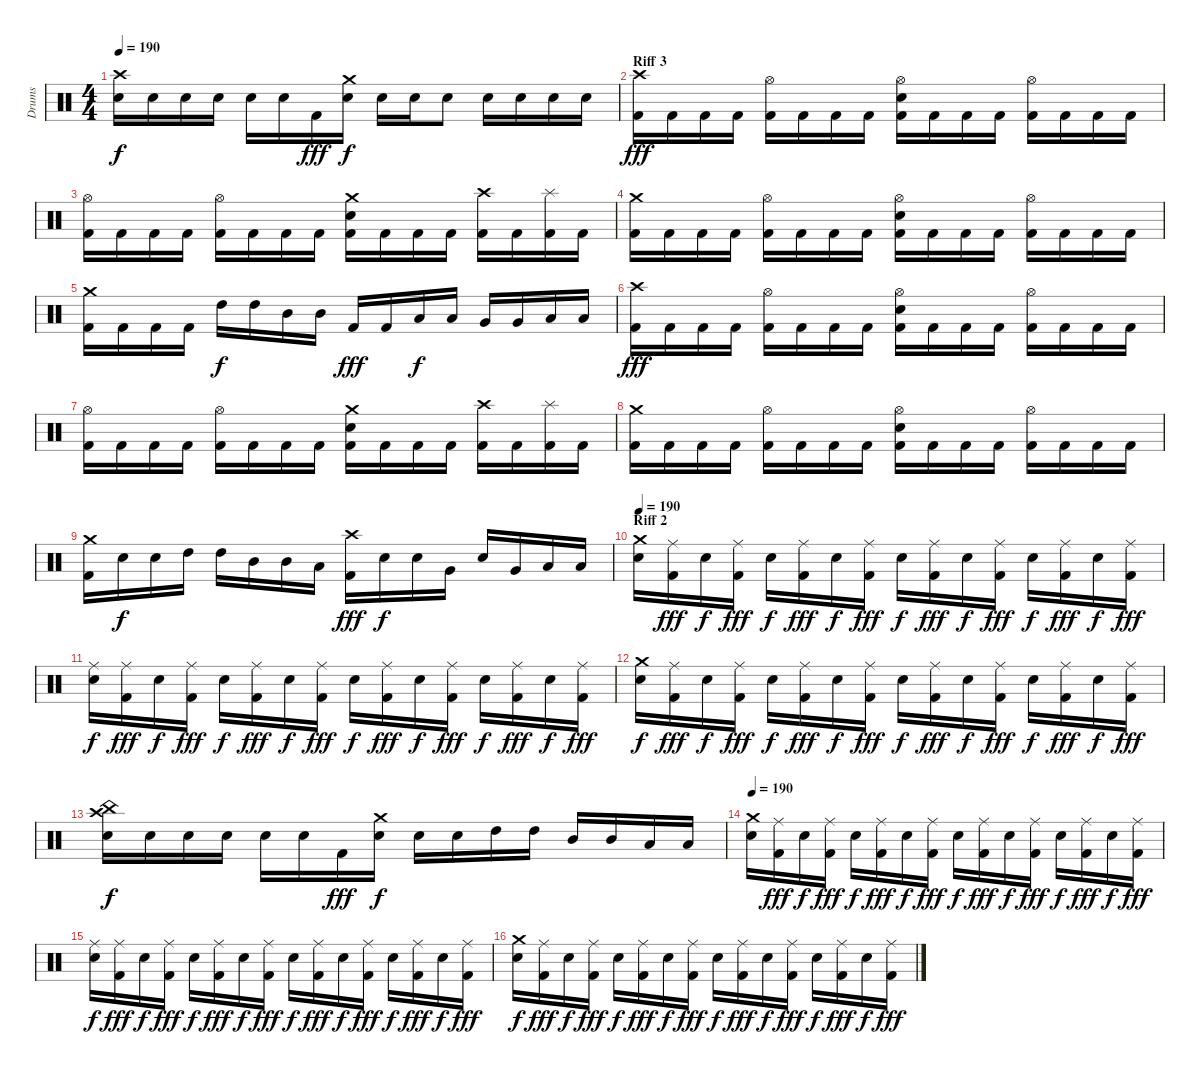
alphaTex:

\track ("Drums" "Drums") {instrument percussion}
\staff {score}
\articulation defaults
\ts (4 4)
\tempo 190
\clef neutral
\ks c
("Crash high (hit)" "Electric Snare (hit)").16{dy f} "Electric Snare (hit)".16 "Electric Snare (hit)".16 "Electric Snare (hit)".16 "Electric Snare (hit)".16 "Electric Snare (hit)".16 "Kick (hit) 2".16{dy fff} ("Crash medium (hit)" "Electric Snare (hit)").16{dy f} "Electric Snare (hit)".16 "Electric Snare (hit)".16 "Electric Snare (hit)".8 "Electric Snare (hit)".16 "Electric Snare (hit)".16 "Electric Snare (hit)".16 "Electric Snare (hit)".16 |
\section ("" "Riff 3")
("Crash high (hit)" "Kick (hit) 2").16{dy fff} "Kick (hit) 2".16 "Kick (hit) 2".16 "Kick (hit) 2".16 ("Hi-Hat (open)" "Kick (hit) 2").16 "Kick (hit) 2".16 "Kick (hit) 2".16 "Kick (hit) 2".16 ("Hi-Hat (open)" "Electric Snare (hit)" "Kick (hit) 2").16 "Kick (hit) 2".16 "Kick (hit) 2".16 "Kick (hit) 2".16 ("Hi-Hat (open)" "Kick (hit) 2").16 "Kick (hit) 2".16 "Kick (hit) 2".16 "Kick (hit) 2".16 |
("Hi-Hat (open)" "Kick (hit) 2").16 "Kick (hit) 2".16 "Kick (hit) 2".16 "Kick (hit) 2".16 ("Hi-Hat (open)" "Kick (hit) 2").16 "Kick (hit) 2".16 "Kick (hit) 2".16 "Kick (hit) 2".16 ("Crash medium (hit)" "Electric Snare (hit)" "Kick (hit) 2").16 "Kick (hit) 2".16 "Kick (hit) 2".16 "Kick (hit) 2".16 ("Crash high (hit)" "Kick (hit) 2").16 "Kick (hit) 2".16 ("Splash (hit)" "Kick (hit) 2").16 "Kick (hit) 2".16 |
("Crash medium (hit)" "Kick (hit) 2").16 "Kick (hit) 2".16 "Kick (hit) 2".16 "Kick (hit) 2".16 ("Hi-Hat (open)" "Kick (hit) 2").16 "Kick (hit) 2".16 "Kick (hit) 2".16 "Kick (hit) 2".16 ("Hi-Hat (open)" "Electric Snare (hit)" "Kick (hit) 2").16 "Kick (hit) 2".16 "Kick (hit) 2".16 "Kick (hit) 2".16 ("Hi-Hat (open)" "Kick (hit) 2").16 "Kick (hit) 2".16 "Kick (hit) 2".16 "Kick (hit) 2".16 |
("Crash medium (hit)" "Kick (hit) 2").16 "Kick (hit) 2".16 "Kick (hit) 2".16 "Kick (hit) 2".16 "High Tom (hit)".16{dy f} "High Tom (hit)".16 "Mid Tom (hit)".16 "Mid Tom (hit)".16 "Kick (hit) 2".16{dy fff} "Kick (hit) 2".16 "Low Tom (hit)".16{dy f} "Low Tom (hit)".16 "Very Low Tom (hit)".16 "Very Low Tom (hit)".16 "Low Floor Tom (hit)".16 "Low Floor Tom (hit)".16 |
("Crash high (hit)" "Kick (hit) 2").16{dy fff} "Kick (hit) 2".16 "Kick (hit) 2".16 "Kick (hit) 2".16 ("Hi-Hat (open)" "Kick (hit) 2").16 "Kick (hit) 2".16 "Kick (hit) 2".16 "Kick (hit) 2".16 ("Hi-Hat (open)" "Electric Snare (hit)" "Kick (hit) 2").16 "Kick (hit) 2".16 "Kick (hit) 2".16 "Kick (hit) 2".16 ("Hi-Hat (open)" "Kick (hit) 2").16 "Kick (hit) 2".16 "Kick (hit) 2".16 "Kick (hit) 2".16 |
("Hi-Hat (open)" "Kick (hit) 2").16 "Kick (hit) 2".16 "Kick (hit) 2".16 "Kick (hit) 2".16 ("Hi-Hat (open)" "Kick (hit) 2").16 "Kick (hit) 2".16 "Kick (hit) 2".16 "Kick (hit) 2".16 ("Crash medium (hit)" "Electric Snare (hit)" "Kick (hit) 2").16 "Kick (hit) 2".16 "Kick (hit) 2".16 "Kick (hit) 2".16 ("Crash high (hit)" "Kick (hit) 2").16 "Kick (hit) 2".16 ("Splash (hit)" "Kick (hit) 2").16 "Kick (hit) 2".16 |
("Crash medium (hit)" "Kick (hit) 2").16 "Kick (hit) 2".16 "Kick (hit) 2".16 "Kick (hit) 2".16 ("Hi-Hat (open)" "Kick (hit) 2").16 "Kick (hit) 2".16 "Kick (hit) 2".16 "Kick (hit) 2".16 ("Hi-Hat (open)" "Electric Snare (hit)" "Kick (hit) 2").16 "Kick (hit) 2".16 "Kick (hit) 2".16 "Kick (hit) 2".16 ("Hi-Hat (open)" "Kick (hit) 2").16 "Kick (hit) 2".16 "Kick (hit) 2".16 "Kick (hit) 2".16 |
("Crash medium (hit)" "Kick (hit) 2").16 "Electric Snare (hit)".16{dy f} "Electric Snare (hit)".16 "High Tom (hit)".16 "High Tom (hit)".16 "Mid Tom (hit)".16 "Mid Tom (hit)".16 "Low Tom (hit)".16 ("Crash high (hit)" "Kick (hit) 2").16{dy fff} "Electric Snare (hit)".16{dy f} "Electric Snare (hit)".16 "Very Low Tom (hit)".16 "Electric Snare (hit)".16 "Very Low Tom (hit)".16 "Low Floor Tom (hit)".16 "Low Floor Tom (hit)".16 |
\section ("" "Riff 2")
\tempo 190
("Crash medium (hit)" "Electric Snare (hit)").16 ("Ride (middle)" "Kick (hit) 2").16{dy fff} "Electric Snare (hit)".16{dy f} ("Ride (middle)" "Kick (hit) 2").16{dy fff} "Electric Snare (hit)".16{dy f} ("Ride (middle)" "Kick (hit) 2").16{dy fff} "Electric Snare (hit)".16{dy f} ("Ride (middle)" "Kick (hit) 2").16{dy fff} "Electric Snare (hit)".16{dy f} ("Ride (middle)" "Kick (hit) 2").16{dy fff} "Electric Snare (hit)".16{dy f} ("Ride (middle)" "Kick (hit) 2").16{dy fff} "Electric Snare (hit)".16{dy f} ("Ride (middle)" "Kick (hit) 2").16{dy fff} "Electric Snare (hit)".16{dy f} ("Ride (middle)" "Kick (hit) 2").16{dy fff} |
("Ride (middle)" "Electric Snare (hit)").16{dy f} ("Ride (middle)" "Kick (hit) 2").16{dy fff} "Electric Snare (hit)".16{dy f} ("Ride (middle)" "Kick (hit) 2").16{dy fff} "Electric Snare (hit)".16{dy f} ("Ride (middle)" "Kick (hit) 2").16{dy fff} "Electric Snare (hit)".16{dy f} ("Ride (middle)" "Kick (hit) 2").16{dy fff} "Electric Snare (hit)".16{dy f} ("Ride (middle)" "Kick (hit) 2").16{dy fff} "Electric Snare (hit)".16{dy f} ("Ride (middle)" "Kick (hit) 2").16{dy fff} "Electric Snare (hit)".16{dy f} ("Ride (middle)" "Kick (hit) 2").16{dy fff} "Electric Snare (hit)".16{dy f} ("Ride (middle)" "Kick (hit) 2").16{dy fff} |
("Crash medium (hit)" "Electric Snare (hit)").16{dy f} ("Ride (middle)" "Kick (hit) 2").16{dy fff} "Electric Snare (hit)".16{dy f} ("Ride (middle)" "Kick (hit) 2").16{dy fff} "Electric Snare (hit)".16{dy f} ("Ride (middle)" "Kick (hit) 2").16{dy fff} "Electric Snare (hit)".16{dy f} ("Ride (middle)" "Kick (hit) 2").16{dy fff} "Electric Snare (hit)".16{dy f} ("Ride (middle)" "Kick (hit) 2").16{dy fff} "Electric Snare (hit)".16{dy f} ("Ride (middle)" "Kick (hit) 2").16{dy fff} "Electric Snare (hit)".16{dy f} ("Ride (middle)" "Kick (hit) 2").16{dy fff} "Electric Snare (hit)".16{dy f} ("Ride (middle)" "Kick (hit) 2").16{dy fff} |
("Crash high (hit)" "China (hit)" "Electric Snare (hit)").16{dy f} "Electric Snare (hit)".16 "Electric Snare (hit)".16 "Electric Snare (hit)".16 "Electric Snare (hit)".16 "Electric Snare (hit)".16 "Kick (hit) 2".16{dy fff} ("Crash medium (hit)" "Electric Snare (hit)").16{dy f} "Electric Snare (hit)".16 "Electric Snare (hit)".16 "High Tom (hit)".16 "High Tom (hit)".16 "Mid Tom (hit)".16 "Mid Tom (hit)".16 "Low Tom (hit)".16 "Low Tom (hit)".16 |
\tempo 190
("Crash medium (hit)" "Electric Snare (hit)").16 ("Ride (middle)" "Kick (hit) 2").16{dy fff} "Electric Snare (hit)".16{dy f} ("Ride (middle)" "Kick (hit) 2").16{dy fff} "Electric Snare (hit)".16{dy f} ("Ride (middle)" "Kick (hit) 2").16{dy fff} "Electric Snare (hit)".16{dy f} ("Ride (middle)" "Kick (hit) 2").16{dy fff} "Electric Snare (hit)".16{dy f} ("Ride (middle)" "Kick (hit) 2").16{dy fff} "Electric Snare (hit)".16{dy f} ("Ride (middle)" "Kick (hit) 2").16{dy fff} "Electric Snare (hit)".16{dy f} ("Ride (middle)" "Kick (hit) 2").16{dy fff} "Electric Snare (hit)".16{dy f} ("Ride (middle)" "Kick (hit) 2").16{dy fff} |
("Ride (middle)" "Electric Snare (hit)").16{dy f} ("Ride (middle)" "Kick (hit) 2").16{dy fff} "Electric Snare (hit)".16{dy f} ("Ride (middle)" "Kick (hit) 2").16{dy fff} "Electric Snare (hit)".16{dy f} ("Ride (middle)" "Kick (hit) 2").16{dy fff} "Electric Snare (hit)".16{dy f} ("Ride (middle)" "Kick (hit) 2").16{dy fff} "Electric Snare (hit)".16{dy f} ("Ride (middle)" "Kick (hit) 2").16{dy fff} "Electric Snare (hit)".16{dy f} ("Ride (middle)" "Kick (hit) 2").16{dy fff} "Electric Snare (hit)".16{dy f} ("Ride (middle)" "Kick (hit) 2").16{dy fff} "Electric Snare (hit)".16{dy f} ("Ride (middle)" "Kick (hit) 2").16{dy fff} |
("Crash medium (hit)" "Electric Snare (hit)").16{dy f} ("Ride (middle)" "Kick (hit) 2").16{dy fff} "Electric Snare (hit)".16{dy f} ("Ride (middle)" "Kick (hit) 2").16{dy fff} "Electric Snare (hit)".16{dy f} ("Ride (middle)" "Kick (hit) 2").16{dy fff} "Electric Snare (hit)".16{dy f} ("Ride (middle)" "Kick (hit) 2").16{dy fff} "Electric Snare (hit)".16{dy f} ("Ride (middle)" "Kick (hit) 2").16{dy fff} "Electric Snare (hit)".16{dy f} ("Ride (middle)" "Kick (hit) 2").16{dy fff} "Electric Snare (hit)".16{dy f} ("Ride (middle)" "Kick (hit) 2").16{dy fff} "Electric Snare (hit)".16{dy f} ("Ride (middle)" "Kick (hit) 2").16{dy fff}
